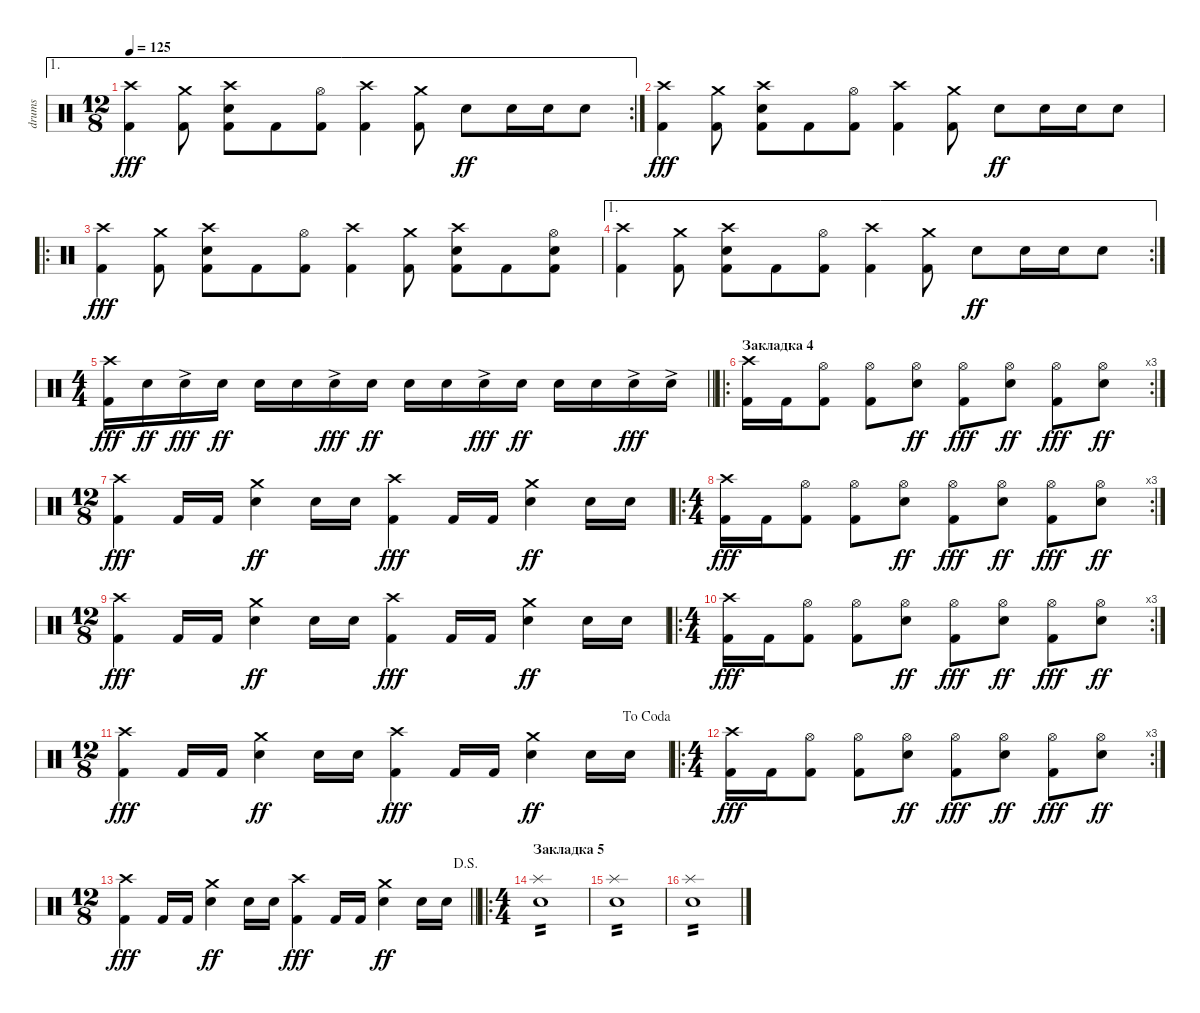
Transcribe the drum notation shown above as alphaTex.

\track ("drums" "drums") {instrument percussion}
\staff {score}
\articulation defaults
\ae 1
\rc 2
\ts (12 8)
\tempo 125
\clef neutral
\ks c
("Crash high (hit)" "Kick (hit) 2").4{dy fff} ("Crash medium (hit)" "Kick (hit) 2").8 ("Crash high (hit)" "Electric Snare (hit)" "Kick (hit) 2").8 "Kick (hit) 2".8 ("Hi-Hat (open)" "Kick (hit) 2").8 ("Crash high (hit)" "Kick (hit) 2").4 ("Crash medium (hit)" "Kick (hit) 2").8 "Electric Snare (hit)".8{dy ff} "Electric Snare (hit)".16 "Electric Snare (hit)".16 "Electric Snare (hit)".8 |
("Crash high (hit)" "Kick (hit) 2").4{dy fff} ("Crash medium (hit)" "Kick (hit) 2").8 ("Crash high (hit)" "Electric Snare (hit)" "Kick (hit) 2").8 "Kick (hit) 2".8 ("Hi-Hat (open)" "Kick (hit) 2").8 ("Crash high (hit)" "Kick (hit) 2").4 ("Crash medium (hit)" "Kick (hit) 2").8 "Electric Snare (hit)".8{dy ff} "Electric Snare (hit)".16 "Electric Snare (hit)".16 "Electric Snare (hit)".8 |
\ro
("Crash high (hit)" "Kick (hit) 2").4{dy fff} ("Crash medium (hit)" "Kick (hit) 2").8 ("Crash high (hit)" "Electric Snare (hit)" "Kick (hit) 2").8 "Kick (hit) 2".8 ("Hi-Hat (open)" "Kick (hit) 2").8 ("Crash high (hit)" "Kick (hit) 2").4 ("Crash medium (hit)" "Kick (hit) 2").8 ("Crash high (hit)" "Electric Snare (hit)" "Kick (hit) 2").8 "Kick (hit) 2".8 ("Hi-Hat (open)" "Electric Snare (hit)" "Kick (hit) 2").8 |
\ae 1
\rc 2
("Crash high (hit)" "Kick (hit) 2").4 ("Crash medium (hit)" "Kick (hit) 2").8 ("Crash high (hit)" "Electric Snare (hit)" "Kick (hit) 2").8 "Kick (hit) 2".8 ("Hi-Hat (open)" "Kick (hit) 2").8 ("Crash high (hit)" "Kick (hit) 2").4 ("Crash medium (hit)" "Kick (hit) 2").8 "Electric Snare (hit)".8{dy ff} "Electric Snare (hit)".16 "Electric Snare (hit)".16 "Electric Snare (hit)".8 |
\ts (4 4)
\barLineRight lightlight
("Crash high (hit)" "Kick (hit) 2").16{dy fff} "Electric Snare (hit)".16{dy ff} "Electric Snare (hit)"{ac}.16{dy fff} "Electric Snare (hit)".16{dy ff} "Electric Snare (hit)".16 "Electric Snare (hit)".16 "Electric Snare (hit)"{ac}.16{dy fff} "Electric Snare (hit)".16{dy ff} "Electric Snare (hit)".16 "Electric Snare (hit)".16 "Electric Snare (hit)"{ac}.16{dy fff} "Electric Snare (hit)".16{dy ff} "Electric Snare (hit)".16 "Electric Snare (hit)".16 "Electric Snare (hit)"{ac}.16{dy fff} "Electric Snare (hit)"{ac}.16 |
\ro
\rc 3
\section ("" "Закладка 4")
("Crash high (hit)" "Kick (hit) 2").16 "Kick (hit) 2".16 ("Hi-Hat (open)" "Kick (hit) 2").8 ("Hi-Hat (open)" "Kick (hit) 2").8 ("Hi-Hat (open)" "Electric Snare (hit)").8{dy ff} ("Hi-Hat (open)" "Kick (hit) 2").8{dy fff} ("Hi-Hat (open)" "Electric Snare (hit)").8{dy ff} ("Hi-Hat (open)" "Kick (hit) 2").8{dy fff} ("Hi-Hat (open)" "Electric Snare (hit)").8{dy ff} |
\ts (12 8)
("Crash high (hit)" "Kick (hit) 2").4{dy fff} "Kick (hit) 2".16 "Kick (hit) 2".16 ("Crash medium (hit)" "Electric Snare (hit)").4{dy ff} "Electric Snare (hit)".16 "Electric Snare (hit)".16 ("Crash high (hit)" "Kick (hit) 2").4{dy fff} "Kick (hit) 2".16 "Kick (hit) 2".16 ("Crash medium (hit)" "Electric Snare (hit)").4{dy ff} "Electric Snare (hit)".16 "Electric Snare (hit)".16 |
\ro
\rc 3
\ts (4 4)
("Crash high (hit)" "Kick (hit) 2").16{dy fff} "Kick (hit) 2".16 ("Hi-Hat (open)" "Kick (hit) 2").8 ("Hi-Hat (open)" "Kick (hit) 2").8 ("Hi-Hat (open)" "Electric Snare (hit)").8{dy ff} ("Hi-Hat (open)" "Kick (hit) 2").8{dy fff} ("Hi-Hat (open)" "Electric Snare (hit)").8{dy ff} ("Hi-Hat (open)" "Kick (hit) 2").8{dy fff} ("Hi-Hat (open)" "Electric Snare (hit)").8{dy ff} |
\ts (12 8)
("Crash high (hit)" "Kick (hit) 2").4{dy fff} "Kick (hit) 2".16 "Kick (hit) 2".16 ("Crash medium (hit)" "Electric Snare (hit)").4{dy ff} "Electric Snare (hit)".16 "Electric Snare (hit)".16 ("Crash high (hit)" "Kick (hit) 2").4{dy fff} "Kick (hit) 2".16 "Kick (hit) 2".16 ("Crash medium (hit)" "Electric Snare (hit)").4{dy ff} "Electric Snare (hit)".16 "Electric Snare (hit)".16 |
\ro
\rc 3
\ts (4 4)
("Crash high (hit)" "Kick (hit) 2").16{dy fff} "Kick (hit) 2".16 ("Hi-Hat (open)" "Kick (hit) 2").8 ("Hi-Hat (open)" "Kick (hit) 2").8 ("Hi-Hat (open)" "Electric Snare (hit)").8{dy ff} ("Hi-Hat (open)" "Kick (hit) 2").8{dy fff} ("Hi-Hat (open)" "Electric Snare (hit)").8{dy ff} ("Hi-Hat (open)" "Kick (hit) 2").8{dy fff} ("Hi-Hat (open)" "Electric Snare (hit)").8{dy ff} |
\ts (12 8)
\jump dacoda
("Crash high (hit)" "Kick (hit) 2").4{dy fff} "Kick (hit) 2".16 "Kick (hit) 2".16 ("Crash medium (hit)" "Electric Snare (hit)").4{dy ff} "Electric Snare (hit)".16 "Electric Snare (hit)".16 ("Crash high (hit)" "Kick (hit) 2").4{dy fff} "Kick (hit) 2".16 "Kick (hit) 2".16 ("Crash medium (hit)" "Electric Snare (hit)").4{dy ff} "Electric Snare (hit)".16 "Electric Snare (hit)".16 |
\ro
\rc 3
\ts (4 4)
("Crash high (hit)" "Kick (hit) 2").16{dy fff} "Kick (hit) 2".16 ("Hi-Hat (open)" "Kick (hit) 2").8 ("Hi-Hat (open)" "Kick (hit) 2").8 ("Hi-Hat (open)" "Electric Snare (hit)").8{dy ff} ("Hi-Hat (open)" "Kick (hit) 2").8{dy fff} ("Hi-Hat (open)" "Electric Snare (hit)").8{dy ff} ("Hi-Hat (open)" "Kick (hit) 2").8{dy fff} ("Hi-Hat (open)" "Electric Snare (hit)").8{dy ff} |
\ts (12 8)
\jump dalsegno
\barLineRight lightlight
("Crash high (hit)" "Kick (hit) 2").4{dy fff} "Kick (hit) 2".16 "Kick (hit) 2".16 ("Crash medium (hit)" "Electric Snare (hit)").4{dy ff} "Electric Snare (hit)".16 "Electric Snare (hit)".16 ("Crash high (hit)" "Kick (hit) 2").4{dy fff} "Kick (hit) 2".16 "Kick (hit) 2".16 ("Crash medium (hit)" "Electric Snare (hit)").4{dy ff} "Electric Snare (hit)".16 "Electric Snare (hit)".16 |
\ro
\ts (4 4)
\section ("" "Закладка 5")
("Splash (hit)" "Electric Snare (hit)").1{tp 2} |
("Splash (hit)" "Electric Snare (hit)").1{tp 2} |
("Splash (hit)" "Electric Snare (hit)").1{tp 2}
